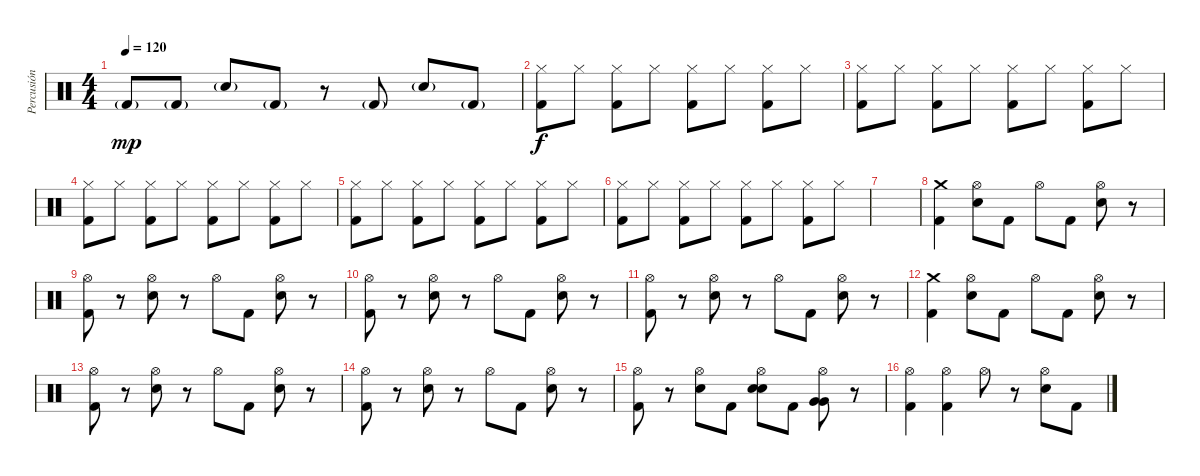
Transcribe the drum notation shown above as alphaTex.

\track ("Percusión" "Percusión") {instrument percussion}
\staff {score}
\articulation defaults
\ts (4 4)
\tempo 120
\clef neutral
\ks c "Kick (hit) 2"{g}.8{dy mp} "Kick (hit) 2"{g}.8 "Electric Snare (hit)"{g}.8 "Kick (hit) 2"{g}.8
r.8 "Kick (hit) 2"{g}.8 "Electric Snare (hit)"{g}.8 "Kick (hit) 2"{g}.8 |
("Hi-Hat (closed)" "Kick (hit) 2").8{dy f} "Hi-Hat (closed)".8 ("Hi-Hat (closed)" "Kick (hit) 2").8 "Hi-Hat (closed)".8 ("Hi-Hat (closed)" "Kick (hit) 2").8 "Hi-Hat (closed)".8 ("Hi-Hat (closed)" "Kick (hit) 2").8 "Hi-Hat (closed)".8 |
("Hi-Hat (closed)" "Kick (hit) 2").8 "Hi-Hat (closed)".8 ("Hi-Hat (closed)" "Kick (hit) 2").8 "Hi-Hat (closed)".8 ("Hi-Hat (closed)" "Kick (hit) 2").8 "Hi-Hat (closed)".8 ("Hi-Hat (closed)" "Kick (hit) 2").8 "Hi-Hat (closed)".8 |
("Hi-Hat (closed)" "Kick (hit) 2").8 "Hi-Hat (closed)".8 ("Hi-Hat (closed)" "Kick (hit) 2").8 "Hi-Hat (closed)".8 ("Hi-Hat (closed)" "Kick (hit) 2").8 "Hi-Hat (closed)".8 ("Hi-Hat (closed)" "Kick (hit) 2").8 "Hi-Hat (closed)".8 |
("Hi-Hat (closed)" "Kick (hit) 2").8 "Hi-Hat (closed)".8 ("Hi-Hat (closed)" "Kick (hit) 2").8 "Hi-Hat (closed)".8 ("Hi-Hat (closed)" "Kick (hit) 2").8 "Hi-Hat (closed)".8 ("Hi-Hat (closed)" "Kick (hit) 2").8 "Hi-Hat (closed)".8 |
("Hi-Hat (closed)" "Kick (hit) 2").8 "Hi-Hat (closed)".8 ("Hi-Hat (closed)" "Kick (hit) 2").8 "Hi-Hat (closed)".8 ("Hi-Hat (closed)" "Kick (hit) 2").8 "Hi-Hat (closed)".8 ("Hi-Hat (closed)" "Kick (hit) 2").8 "Hi-Hat (closed)".8 |
|
("Crash medium (hit)" "Kick (hit) 2").4 ("Hi-Hat (open)" "Electric Snare (hit)").8 "Kick (hit) 2".8 "Hi-Hat (open)".8 "Kick (hit) 2".8 ("Hi-Hat (open)" "Electric Snare (hit)").8 r.8 |
("Hi-Hat (open)" "Kick (hit) 2").8 r.8 ("Hi-Hat (open)" "Electric Snare (hit)").8 r.8 "Hi-Hat (open)".8 "Kick (hit) 2".8 ("Hi-Hat (open)" "Electric Snare (hit)").8 r.8 |
("Hi-Hat (open)" "Kick (hit) 2").8 r.8 ("Hi-Hat (open)" "Electric Snare (hit)").8 r.8 "Hi-Hat (open)".8 "Kick (hit) 2".8 ("Hi-Hat (open)" "Electric Snare (hit)").8 r.8 |
("Hi-Hat (open)" "Kick (hit) 2").8 r.8 ("Hi-Hat (open)" "Electric Snare (hit)").8 r.8 "Hi-Hat (open)".8 "Kick (hit) 2".8 ("Hi-Hat (open)" "Electric Snare (hit)").8 r.8 |
("Crash medium (hit)" "Kick (hit) 2").4 ("Hi-Hat (open)" "Electric Snare (hit)").8 "Kick (hit) 2".8 "Hi-Hat (open)".8 "Kick (hit) 2".8 ("Hi-Hat (open)" "Electric Snare (hit)").8 r.8 |
("Hi-Hat (open)" "Kick (hit) 2").8 r.8 ("Hi-Hat (open)" "Electric Snare (hit)").8 r.8 "Hi-Hat (open)".8 "Kick (hit) 2".8 ("Hi-Hat (open)" "Electric Snare (hit)").8 r.8 |
("Hi-Hat (open)" "Kick (hit) 2").8 r.8 ("Hi-Hat (open)" "Electric Snare (hit)").8 r.8 "Hi-Hat (open)".8 "Kick (hit) 2".8 ("Hi-Hat (open)" "Electric Snare (hit)").8 r.8 |
("Hi-Hat (open)" "Kick (hit) 2").8 r.8 ("Hi-Hat (open)" "Electric Snare (hit)").8 "Kick (hit) 2".8 ("Hi-Hat (open)" "Electric Snare (hit)" "Electric Snare (hit)").8 "Kick (hit) 2".8 ("Hi-Hat (open)" "Very Low Tom (hit)" "Very Low Tom (hit)").8 r.8 |
("Hi-Hat (open)" "Kick (hit) 2").4 ("Hi-Hat (open)" "Kick (hit) 2").4 "Hi-Hat (open)".8 r.8 ("Hi-Hat (open)" "Electric Snare (hit)").8 "Kick (hit) 2".8
